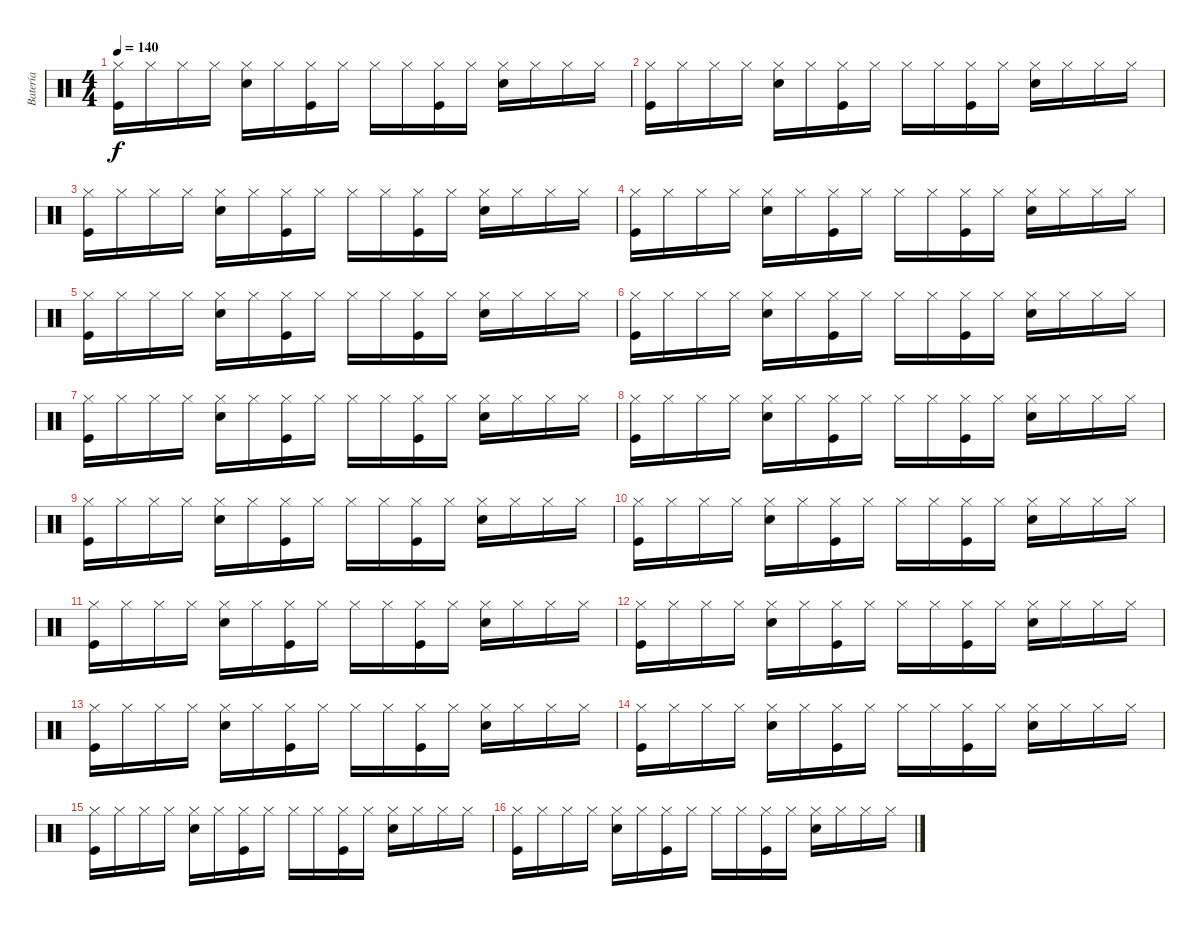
\track ("Batería" "Batería") {instrument percussion}
\staff {score}
\articulation defaults
\ts (4 4)
\tempo 140
\clef neutral
\ks c
("Hi-Hat (closed)" "Kick (hit)").16{dy f} "Hi-Hat (closed)".16 "Hi-Hat (closed)".16 "Hi-Hat (closed)".16 ("Hi-Hat (closed)" "Snare (hit) 2").16 "Hi-Hat (closed)".16 ("Hi-Hat (closed)" "Kick (hit)").16 "Hi-Hat (closed)".16 "Hi-Hat (closed)".16 "Hi-Hat (closed)".16 ("Hi-Hat (closed)" "Kick (hit)").16 "Hi-Hat (closed)".16 ("Hi-Hat (closed)" "Snare (hit) 2").16 "Hi-Hat (closed)".16 "Hi-Hat (closed)".16 "Hi-Hat (closed)".16 |
("Hi-Hat (closed)" "Kick (hit)").16 "Hi-Hat (closed)".16 "Hi-Hat (closed)".16 "Hi-Hat (closed)".16 ("Hi-Hat (closed)" "Snare (hit) 2").16 "Hi-Hat (closed)".16 ("Hi-Hat (closed)" "Kick (hit)").16 "Hi-Hat (closed)".16 "Hi-Hat (closed)".16 "Hi-Hat (closed)".16 ("Hi-Hat (closed)" "Kick (hit)").16 "Hi-Hat (closed)".16 ("Hi-Hat (closed)" "Snare (hit) 2").16 "Hi-Hat (closed)".16 "Hi-Hat (closed)".16 "Hi-Hat (closed)".16 |
("Hi-Hat (closed)" "Kick (hit)").16 "Hi-Hat (closed)".16 "Hi-Hat (closed)".16 "Hi-Hat (closed)".16 ("Hi-Hat (closed)" "Snare (hit) 2").16 "Hi-Hat (closed)".16 ("Hi-Hat (closed)" "Kick (hit)").16 "Hi-Hat (closed)".16 "Hi-Hat (closed)".16 "Hi-Hat (closed)".16 ("Hi-Hat (closed)" "Kick (hit)").16 "Hi-Hat (closed)".16 ("Hi-Hat (closed)" "Snare (hit) 2").16 "Hi-Hat (closed)".16 "Hi-Hat (closed)".16 "Hi-Hat (closed)".16 |
("Hi-Hat (closed)" "Kick (hit)").16 "Hi-Hat (closed)".16 "Hi-Hat (closed)".16 "Hi-Hat (closed)".16 ("Hi-Hat (closed)" "Snare (hit) 2").16 "Hi-Hat (closed)".16 ("Hi-Hat (closed)" "Kick (hit)").16 "Hi-Hat (closed)".16 "Hi-Hat (closed)".16 "Hi-Hat (closed)".16 ("Hi-Hat (closed)" "Kick (hit)").16 "Hi-Hat (closed)".16 ("Hi-Hat (closed)" "Snare (hit) 2").16 "Hi-Hat (closed)".16 "Hi-Hat (closed)".16 "Hi-Hat (closed)".16 |
("Hi-Hat (closed)" "Kick (hit)").16 "Hi-Hat (closed)".16 "Hi-Hat (closed)".16 "Hi-Hat (closed)".16 ("Hi-Hat (closed)" "Snare (hit) 2").16 "Hi-Hat (closed)".16 ("Hi-Hat (closed)" "Kick (hit)").16 "Hi-Hat (closed)".16 "Hi-Hat (closed)".16 "Hi-Hat (closed)".16 ("Hi-Hat (closed)" "Kick (hit)").16 "Hi-Hat (closed)".16 ("Hi-Hat (closed)" "Snare (hit) 2").16 "Hi-Hat (closed)".16 "Hi-Hat (closed)".16 "Hi-Hat (closed)".16 |
("Hi-Hat (closed)" "Kick (hit)").16 "Hi-Hat (closed)".16 "Hi-Hat (closed)".16 "Hi-Hat (closed)".16 ("Hi-Hat (closed)" "Snare (hit) 2").16 "Hi-Hat (closed)".16 ("Hi-Hat (closed)" "Kick (hit)").16 "Hi-Hat (closed)".16 "Hi-Hat (closed)".16 "Hi-Hat (closed)".16 ("Hi-Hat (closed)" "Kick (hit)").16 "Hi-Hat (closed)".16 ("Hi-Hat (closed)" "Snare (hit) 2").16 "Hi-Hat (closed)".16 "Hi-Hat (closed)".16 "Hi-Hat (closed)".16 |
("Hi-Hat (closed)" "Kick (hit)").16 "Hi-Hat (closed)".16 "Hi-Hat (closed)".16 "Hi-Hat (closed)".16 ("Hi-Hat (closed)" "Snare (hit) 2").16 "Hi-Hat (closed)".16 ("Hi-Hat (closed)" "Kick (hit)").16 "Hi-Hat (closed)".16 "Hi-Hat (closed)".16 "Hi-Hat (closed)".16 ("Hi-Hat (closed)" "Kick (hit)").16 "Hi-Hat (closed)".16 ("Hi-Hat (closed)" "Snare (hit) 2").16 "Hi-Hat (closed)".16 "Hi-Hat (closed)".16 "Hi-Hat (closed)".16 |
("Hi-Hat (closed)" "Kick (hit)").16 "Hi-Hat (closed)".16 "Hi-Hat (closed)".16 "Hi-Hat (closed)".16 ("Hi-Hat (closed)" "Snare (hit) 2").16 "Hi-Hat (closed)".16 ("Hi-Hat (closed)" "Kick (hit)").16 "Hi-Hat (closed)".16 "Hi-Hat (closed)".16 "Hi-Hat (closed)".16 ("Hi-Hat (closed)" "Kick (hit)").16 "Hi-Hat (closed)".16 ("Hi-Hat (closed)" "Snare (hit) 2").16 "Hi-Hat (closed)".16 "Hi-Hat (closed)".16 "Hi-Hat (closed)".16 |
("Hi-Hat (closed)" "Kick (hit)").16 "Hi-Hat (closed)".16 "Hi-Hat (closed)".16 "Hi-Hat (closed)".16 ("Hi-Hat (closed)" "Snare (hit) 2").16 "Hi-Hat (closed)".16 ("Hi-Hat (closed)" "Kick (hit)").16 "Hi-Hat (closed)".16 "Hi-Hat (closed)".16 "Hi-Hat (closed)".16 ("Hi-Hat (closed)" "Kick (hit)").16 "Hi-Hat (closed)".16 ("Hi-Hat (closed)" "Snare (hit) 2").16 "Hi-Hat (closed)".16 "Hi-Hat (closed)".16 "Hi-Hat (closed)".16 |
("Hi-Hat (closed)" "Kick (hit)").16 "Hi-Hat (closed)".16 "Hi-Hat (closed)".16 "Hi-Hat (closed)".16 ("Hi-Hat (closed)" "Snare (hit) 2").16 "Hi-Hat (closed)".16 ("Hi-Hat (closed)" "Kick (hit)").16 "Hi-Hat (closed)".16 "Hi-Hat (closed)".16 "Hi-Hat (closed)".16 ("Hi-Hat (closed)" "Kick (hit)").16 "Hi-Hat (closed)".16 ("Hi-Hat (closed)" "Snare (hit) 2").16 "Hi-Hat (closed)".16 "Hi-Hat (closed)".16 "Hi-Hat (closed)".16 |
("Hi-Hat (closed)" "Kick (hit)").16 "Hi-Hat (closed)".16 "Hi-Hat (closed)".16 "Hi-Hat (closed)".16 ("Hi-Hat (closed)" "Snare (hit) 2").16 "Hi-Hat (closed)".16 ("Hi-Hat (closed)" "Kick (hit)").16 "Hi-Hat (closed)".16 "Hi-Hat (closed)".16 "Hi-Hat (closed)".16 ("Hi-Hat (closed)" "Kick (hit)").16 "Hi-Hat (closed)".16 ("Hi-Hat (closed)" "Snare (hit) 2").16 "Hi-Hat (closed)".16 "Hi-Hat (closed)".16 "Hi-Hat (closed)".16 |
("Hi-Hat (closed)" "Kick (hit)").16 "Hi-Hat (closed)".16 "Hi-Hat (closed)".16 "Hi-Hat (closed)".16 ("Hi-Hat (closed)" "Snare (hit) 2").16 "Hi-Hat (closed)".16 ("Hi-Hat (closed)" "Kick (hit)").16 "Hi-Hat (closed)".16 "Hi-Hat (closed)".16 "Hi-Hat (closed)".16 ("Hi-Hat (closed)" "Kick (hit)").16 "Hi-Hat (closed)".16 ("Hi-Hat (closed)" "Snare (hit) 2").16 "Hi-Hat (closed)".16 "Hi-Hat (closed)".16 "Hi-Hat (closed)".16 |
("Hi-Hat (closed)" "Kick (hit)").16 "Hi-Hat (closed)".16 "Hi-Hat (closed)".16 "Hi-Hat (closed)".16 ("Hi-Hat (closed)" "Snare (hit) 2").16 "Hi-Hat (closed)".16 ("Hi-Hat (closed)" "Kick (hit)").16 "Hi-Hat (closed)".16 "Hi-Hat (closed)".16 "Hi-Hat (closed)".16 ("Hi-Hat (closed)" "Kick (hit)").16 "Hi-Hat (closed)".16 ("Hi-Hat (closed)" "Snare (hit) 2").16 "Hi-Hat (closed)".16 "Hi-Hat (closed)".16 "Hi-Hat (closed)".16 |
("Hi-Hat (closed)" "Kick (hit)").16 "Hi-Hat (closed)".16 "Hi-Hat (closed)".16 "Hi-Hat (closed)".16 ("Hi-Hat (closed)" "Snare (hit) 2").16 "Hi-Hat (closed)".16 ("Hi-Hat (closed)" "Kick (hit)").16 "Hi-Hat (closed)".16 "Hi-Hat (closed)".16 "Hi-Hat (closed)".16 ("Hi-Hat (closed)" "Kick (hit)").16 "Hi-Hat (closed)".16 ("Hi-Hat (closed)" "Snare (hit) 2").16 "Hi-Hat (closed)".16 "Hi-Hat (closed)".16 "Hi-Hat (closed)".16 |
("Hi-Hat (closed)" "Kick (hit)").16 "Hi-Hat (closed)".16 "Hi-Hat (closed)".16 "Hi-Hat (closed)".16 ("Hi-Hat (closed)" "Snare (hit) 2").16 "Hi-Hat (closed)".16 ("Hi-Hat (closed)" "Kick (hit)").16 "Hi-Hat (closed)".16 "Hi-Hat (closed)".16 "Hi-Hat (closed)".16 ("Hi-Hat (closed)" "Kick (hit)").16 "Hi-Hat (closed)".16 ("Hi-Hat (closed)" "Snare (hit) 2").16 "Hi-Hat (closed)".16 "Hi-Hat (closed)".16 "Hi-Hat (closed)".16 |
("Hi-Hat (closed)" "Kick (hit)").16 "Hi-Hat (closed)".16 "Hi-Hat (closed)".16 "Hi-Hat (closed)".16 ("Hi-Hat (closed)" "Snare (hit) 2").16 "Hi-Hat (closed)".16 ("Hi-Hat (closed)" "Kick (hit)").16 "Hi-Hat (closed)".16 "Hi-Hat (closed)".16 "Hi-Hat (closed)".16 ("Hi-Hat (closed)" "Kick (hit)").16 "Hi-Hat (closed)".16 ("Hi-Hat (closed)" "Snare (hit) 2").16 "Hi-Hat (closed)".16 "Hi-Hat (closed)".16 "Hi-Hat (closed)".16
